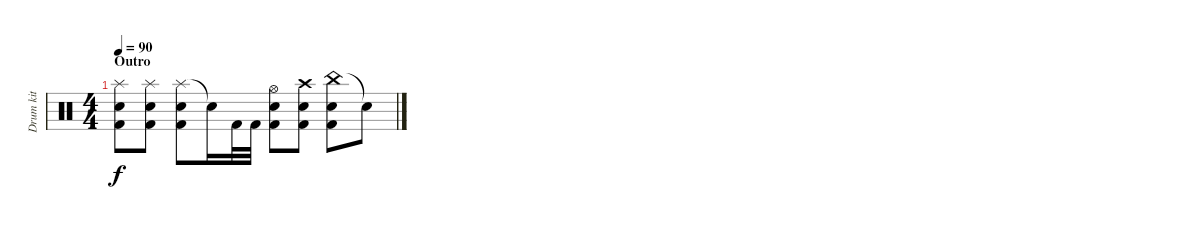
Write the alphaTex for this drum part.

\track ("Drum kit" "Drum kit") {instrument percussion}
\staff {score}
\articulation defaults
\ts (4 4)
\section ("" "Outro")
\tempo 90
\clef neutral
\ks c
("Splash (hit)" "Electric Snare (hit)" "Kick (hit) 2").8{dy f} ("Splash (hit)" "Electric Snare (hit)" "Kick (hit) 2").8 ("Splash (hit)" "Electric Snare (hit)" "Kick (hit) 2").8 "Snare (hit)"{t}.16 "Kick (hit) 2".32 "Kick (hit) 2".32 ("Hi-Hat (open)" "Electric Snare (hit)" "Kick (hit) 2").8 ("Crash high (hit)" "Electric Snare (hit)" "Kick (hit) 2").8 ("China (hit)" "Electric Snare (hit)" "Kick (hit) 2").8 "Snare (hit)"{t}.8
